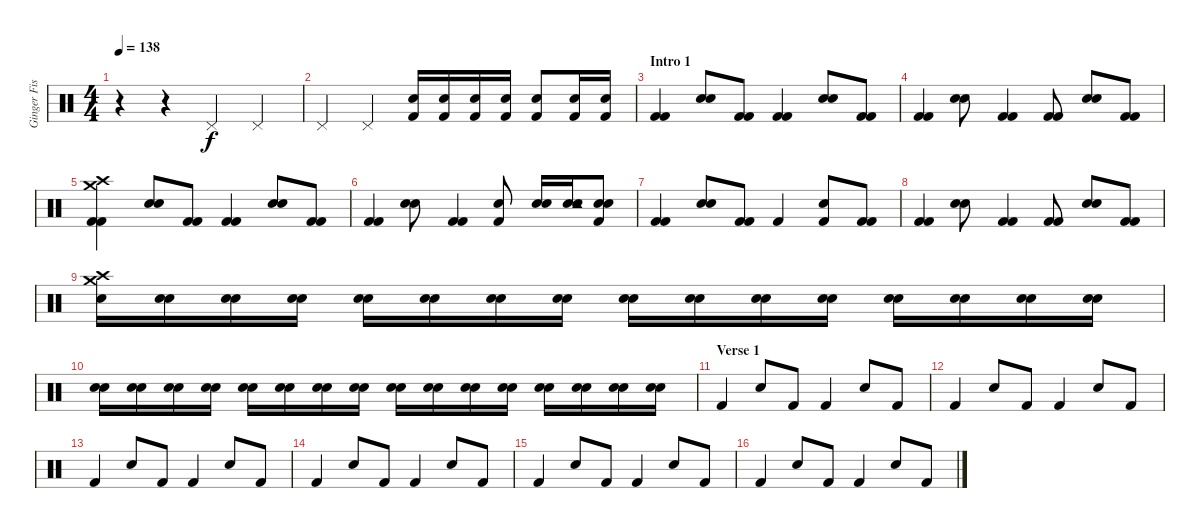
\track ("Ginger Fish [Drums]" "Ginger Fis") {instrument percussion}
\staff {score}
\articulation defaults
\ts (4 4)
\tempo 138
\clef neutral
\ks c
r.4{dy f} r.4 "Pedal Hi-Hat (hit)".4 "Pedal Hi-Hat (hit)".4 |
"Pedal Hi-Hat (hit)".4 "Pedal Hi-Hat (hit)".4 ("Kick (hit) 2" "Snare (hit) 2").16 ("Kick (hit) 2" "Snare (hit) 2").16 ("Kick (hit) 2" "Snare (hit) 2").16 ("Kick (hit) 2" "Snare (hit) 2").16 ("Kick (hit) 2" "Snare (hit) 2").8 ("Kick (hit) 2" "Snare (hit) 2").16 ("Kick (hit) 2" "Snare (hit) 2").16 |
\section ("" "Intro 1")
("Kick (hit) 2" "Kick (hit) 2").4 ("Snare (hit) 2" "Snare (hit) 2").8 ("Kick (hit) 2" "Kick (hit) 2").8 ("Kick (hit) 2" "Kick (hit) 2").4 ("Snare (hit) 2" "Snare (hit) 2").8 ("Kick (hit) 2" "Kick (hit) 2").8 |
("Kick (hit) 2" "Kick (hit) 2").4 ("Snare (hit) 2" "Snare (hit) 2").8 ("Kick (hit) 2" "Kick (hit) 2").4 ("Kick (hit) 2" "Kick (hit) 2").8 ("Snare (hit) 2" "Snare (hit) 2").8 ("Kick (hit) 2" "Kick (hit) 2").8 |
("Kick (hit) 2" "Kick (hit) 2" "Crash high (hit)" "Crash medium (hit)").4 ("Snare (hit) 2" "Snare (hit) 2").8 ("Kick (hit) 2" "Kick (hit) 2").8 ("Kick (hit) 2" "Kick (hit) 2").4 ("Snare (hit) 2" "Snare (hit) 2").8 ("Kick (hit) 2" "Kick (hit) 2").8 |
("Kick (hit) 2" "Kick (hit) 2").4 ("Snare (hit) 2" "Snare (hit) 2").8 ("Kick (hit) 2" "Kick (hit) 2").4 ("Kick (hit) 2" "Snare (hit) 2").8 ("Snare (hit) 2" "Snare (hit) 2").16 ("Snare (hit) 2" "Snare (hit) 2" "Tambourine (hit)").16 ("Kick (hit) 2" "Snare (hit) 2" "Snare (hit) 2").8 |
("Kick (hit) 2" "Kick (hit) 2").4 ("Snare (hit) 2" "Snare (hit) 2").8 ("Kick (hit) 2" "Kick (hit) 2").8 "Kick (hit) 2".4 ("Snare (hit) 2" "Kick (hit) 2").8 ("Kick (hit) 2" "Kick (hit) 2").8 |
("Kick (hit) 2" "Kick (hit) 2").4 ("Snare (hit) 2" "Snare (hit) 2").8 ("Kick (hit) 2" "Kick (hit) 2").4 ("Kick (hit) 2" "Kick (hit) 2").8 ("Snare (hit) 2" "Snare (hit) 2").8 ("Kick (hit) 2" "Kick (hit) 2").8 |
("Snare (hit) 2" "Crash high (hit)" "Crash medium (hit)").16 ("Snare (hit) 2" "Snare (hit) 2").16 ("Snare (hit) 2" "Snare (hit) 2").16 ("Snare (hit) 2" "Snare (hit) 2").16 ("Snare (hit) 2" "Snare (hit) 2").16 ("Snare (hit) 2" "Snare (hit) 2").16 ("Snare (hit) 2" "Snare (hit) 2").16 ("Snare (hit) 2" "Snare (hit) 2").16 ("Snare (hit) 2" "Snare (hit) 2").16 ("Snare (hit) 2" "Snare (hit) 2").16 ("Snare (hit) 2" "Snare (hit) 2").16 ("Snare (hit) 2" "Snare (hit) 2").16 ("Snare (hit) 2" "Snare (hit) 2").16 ("Snare (hit) 2" "Snare (hit) 2").16 ("Snare (hit) 2" "Snare (hit) 2").16 ("Snare (hit) 2" "Snare (hit) 2").16 |
("Snare (hit) 2" "Snare (hit) 2").16 ("Snare (hit) 2" "Snare (hit) 2").16 ("Snare (hit) 2" "Snare (hit) 2").16 ("Snare (hit) 2" "Snare (hit) 2").16 ("Snare (hit) 2" "Snare (hit) 2").16 ("Snare (hit) 2" "Snare (hit) 2").16 ("Snare (hit) 2" "Snare (hit) 2").16 ("Snare (hit) 2" "Snare (hit) 2").16 ("Snare (hit) 2" "Snare (hit) 2").16 ("Snare (hit) 2" "Snare (hit) 2").16 ("Snare (hit) 2" "Snare (hit) 2").16 ("Snare (hit) 2" "Snare (hit) 2").16 ("Snare (hit) 2" "Snare (hit) 2").16 ("Snare (hit) 2" "Snare (hit) 2").16 ("Snare (hit) 2" "Snare (hit) 2").16 ("Snare (hit) 2" "Snare (hit) 2").16 |
\section ("" "Verse 1")
"Kick (hit) 2".4 "Snare (hit) 2".8 "Kick (hit) 2".8 "Kick (hit) 2".4 "Snare (hit) 2".8 "Kick (hit) 2".8 |
"Kick (hit) 2".4 "Snare (hit) 2".8 "Kick (hit) 2".8 "Kick (hit) 2".4 "Snare (hit) 2".8 "Kick (hit) 2".8 |
"Kick (hit) 2".4 "Snare (hit) 2".8 "Kick (hit) 2".8 "Kick (hit) 2".4 "Snare (hit) 2".8 "Kick (hit) 2".8 |
"Kick (hit) 2".4 "Snare (hit) 2".8 "Kick (hit) 2".8 "Kick (hit) 2".4 "Snare (hit) 2".8 "Kick (hit) 2".8 |
"Kick (hit) 2".4 "Snare (hit) 2".8 "Kick (hit) 2".8 "Kick (hit) 2".4 "Snare (hit) 2".8 "Kick (hit) 2".8 |
"Kick (hit) 2".4 "Snare (hit) 2".8 "Kick (hit) 2".8 "Kick (hit) 2".4 "Snare (hit) 2".8 "Kick (hit) 2".8
